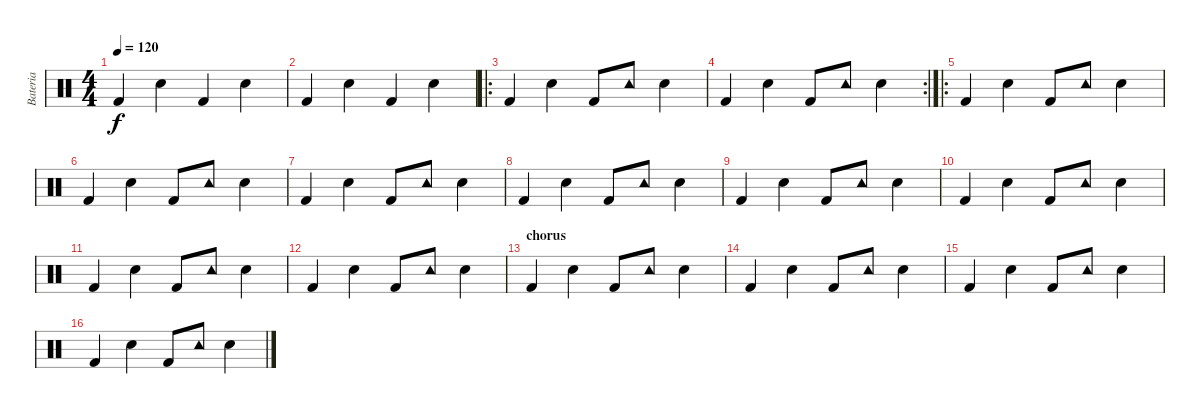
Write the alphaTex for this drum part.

\track ("Bateria" "Bateria") {instrument percussion}
\staff {score}
\articulation defaults
\ts (4 4)
\tempo 120
\clef neutral
\ks c "Kick (hit) 2".4{dy f} "Electric Snare (hit)".4 "Kick (hit) 2".4 "Electric Snare (hit)".4
|
"Kick (hit) 2".4 "Electric Snare (hit)".4 "Kick (hit) 2".4 "Electric Snare (hit)".4 |
\ro "Kick (hit) 2".4 "Electric Snare (hit)".4 "Kick (hit) 2".8 "Tambourine (hit)".8 "Electric Snare (hit)".4
|
\rc 2 "Kick (hit) 2".4 "Electric Snare (hit)".4 "Kick (hit) 2".8 "Tambourine (hit)".8 "Electric Snare (hit)".4
|
\ro "Kick (hit) 2".4 "Electric Snare (hit)".4 "Kick (hit) 2".8 "Tambourine (hit)".8 "Electric Snare (hit)".4
|
"Kick (hit) 2".4 "Electric Snare (hit)".4 "Kick (hit) 2".8 "Tambourine (hit)".8 "Electric Snare (hit)".4 |
"Kick (hit) 2".4 "Electric Snare (hit)".4 "Kick (hit) 2".8 "Tambourine (hit)".8 "Electric Snare (hit)".4 |
"Kick (hit) 2".4 "Electric Snare (hit)".4 "Kick (hit) 2".8 "Tambourine (hit)".8 "Electric Snare (hit)".4 |
"Kick (hit) 2".4 "Electric Snare (hit)".4 "Kick (hit) 2".8 "Tambourine (hit)".8 "Electric Snare (hit)".4 |
"Kick (hit) 2".4 "Electric Snare (hit)".4 "Kick (hit) 2".8 "Tambourine (hit)".8 "Electric Snare (hit)".4 |
"Kick (hit) 2".4 "Electric Snare (hit)".4 "Kick (hit) 2".8 "Tambourine (hit)".8 "Electric Snare (hit)".4 |
"Kick (hit) 2".4 "Electric Snare (hit)".4 "Kick (hit) 2".8 "Tambourine (hit)".8 "Electric Snare (hit)".4 |
\section ("" "chorus")
"Kick (hit) 2".4 "Electric Snare (hit)".4 "Kick (hit) 2".8 "Tambourine (hit)".8 "Electric Snare (hit)".4 |
"Kick (hit) 2".4 "Electric Snare (hit)".4 "Kick (hit) 2".8 "Tambourine (hit)".8 "Electric Snare (hit)".4 |
"Kick (hit) 2".4 "Electric Snare (hit)".4 "Kick (hit) 2".8 "Tambourine (hit)".8 "Electric Snare (hit)".4 |
"Kick (hit) 2".4 "Electric Snare (hit)".4 "Kick (hit) 2".8 "Tambourine (hit)".8 "Electric Snare (hit)".4
